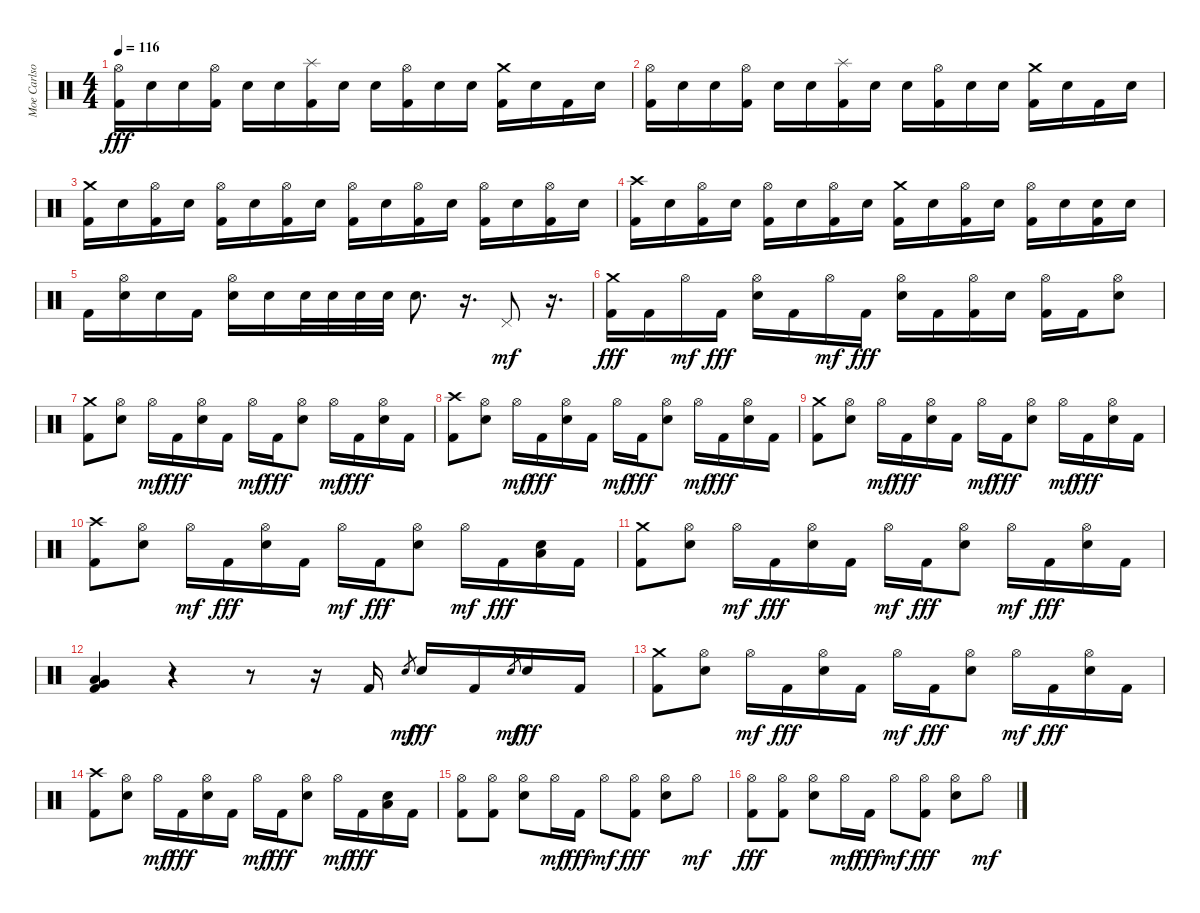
\track ("Moe Carlson" "Moe Carlso") {instrument percussion}
\staff {score}
\articulation defaults
\ts (4 4)
\tempo 116
\clef neutral
\ks c
("Hi-Hat (open)" "Kick (hit) 2").16{dy fff} "Electric Snare (hit)".16 "Electric Snare (hit)".16 ("Hi-Hat (open)" "Kick (hit) 2").16 "Electric Snare (hit)".16 "Electric Snare (hit)".16 ("Splash (hit)" "Kick (hit) 2").16 "Electric Snare (hit)".16 "Electric Snare (hit)".16 ("Hi-Hat (open)" "Kick (hit) 2").16 "Electric Snare (hit)".16 "Electric Snare (hit)".16 ("Crash medium (hit)" "Kick (hit) 2").16 "Electric Snare (hit)".16 "Kick (hit) 2".16 "Electric Snare (hit)".16 |
("Hi-Hat (open)" "Kick (hit) 2").16 "Electric Snare (hit)".16 "Electric Snare (hit)".16 ("Hi-Hat (open)" "Kick (hit) 2").16 "Electric Snare (hit)".16 "Electric Snare (hit)".16 ("Splash (hit)" "Kick (hit) 2").16 "Electric Snare (hit)".16 "Electric Snare (hit)".16 ("Hi-Hat (open)" "Kick (hit) 2").16 "Electric Snare (hit)".16 "Electric Snare (hit)".16 ("Crash medium (hit)" "Kick (hit) 2").16 "Electric Snare (hit)".16 "Kick (hit) 2".16 "Electric Snare (hit)".16 |
("Crash medium (hit)" "Kick (hit) 2").16 "Electric Snare (hit)".16 ("Hi-Hat (open)" "Kick (hit) 2").16 "Electric Snare (hit)".16 ("Hi-Hat (open)" "Kick (hit) 2").16 "Electric Snare (hit)".16 ("Hi-Hat (open)" "Kick (hit) 2").16 "Electric Snare (hit)".16 ("Hi-Hat (open)" "Kick (hit) 2").16 "Electric Snare (hit)".16 ("Hi-Hat (open)" "Kick (hit) 2").16 "Electric Snare (hit)".16 ("Hi-Hat (open)" "Kick (hit) 2").16 "Electric Snare (hit)".16 ("Hi-Hat (open)" "Kick (hit) 2").16 "Electric Snare (hit)".16 |
("Crash high (hit)" "Kick (hit) 2").16 "Electric Snare (hit)".16 ("Hi-Hat (open)" "Kick (hit) 2").16 "Electric Snare (hit)".16 ("Hi-Hat (open)" "Kick (hit) 2").16 "Electric Snare (hit)".16 ("Hi-Hat (open)" "Kick (hit) 2").16 "Electric Snare (hit)".16 ("Crash medium (hit)" "Kick (hit) 2").16 "Electric Snare (hit)".16 ("Hi-Hat (open)" "Kick (hit) 2").16 "Electric Snare (hit)".16 ("Hi-Hat (open)" "Kick (hit) 2").16 "Electric Snare (hit)".16 ("Electric Snare (hit)" "Kick (hit) 2").16 "Electric Snare (hit)".16 |
"Kick (hit) 2".16 ("Hi-Hat (open)" "Electric Snare (hit)").16 "Electric Snare (hit)".16 "Kick (hit) 2".16 ("Hi-Hat (open)" "Electric Snare (hit)").16 "Electric Snare (hit)".16 "Electric Snare (hit)".32 "Electric Snare (hit)".32 "Electric Snare (hit)".32 "Electric Snare (hit)".32 "Electric Snare (hit)".8{d} r.16{d} "Pedal Hi-Hat (hit)".8{dy mf} r.16{d} |
("Crash medium (hit)" "Kick (hit) 2").16{dy fff} "Kick (hit) 2".16 "Hi-Hat (open)".16{dy mf} "Kick (hit) 2".16{dy fff} ("Hi-Hat (open)" "Electric Snare (hit)").16 "Kick (hit) 2".16 "Hi-Hat (open)".16{dy mf} "Kick (hit) 2".16{dy fff} ("Hi-Hat (open)" "Electric Snare (hit)").16 "Kick (hit) 2".16 ("Hi-Hat (open)" "Kick (hit) 2").16 "Electric Snare (hit)".16 ("Hi-Hat (open)" "Kick (hit) 2").16 "Kick (hit) 2".16 ("Hi-Hat (open)" "Electric Snare (hit)").8 |
("Crash medium (hit)" "Kick (hit) 2").8 ("Hi-Hat (open)" "Electric Snare (hit)").8 "Hi-Hat (open)".16{dy mf} "Kick (hit) 2".16{dy fff} ("Hi-Hat (open)" "Electric Snare (hit)").16 "Kick (hit) 2".16 "Hi-Hat (open)".16{dy mf} "Kick (hit) 2".16{dy fff} ("Hi-Hat (open)" "Electric Snare (hit)").8 "Hi-Hat (open)".16{dy mf} "Kick (hit) 2".16{dy fff} ("Hi-Hat (open)" "Electric Snare (hit)").16 "Kick (hit) 2".16 |
("Crash high (hit)" "Kick (hit) 2").8 ("Hi-Hat (open)" "Electric Snare (hit)").8 "Hi-Hat (open)".16{dy mf} "Kick (hit) 2".16{dy fff} ("Hi-Hat (open)" "Electric Snare (hit)").16 "Kick (hit) 2".16 "Hi-Hat (open)".16{dy mf} "Kick (hit) 2".16{dy fff} ("Hi-Hat (open)" "Electric Snare (hit)").8 "Hi-Hat (open)".16{dy mf} "Kick (hit) 2".16{dy fff} ("Hi-Hat (open)" "Electric Snare (hit)").16 "Kick (hit) 2".16 |
("Crash medium (hit)" "Kick (hit) 2").8 ("Hi-Hat (open)" "Electric Snare (hit)").8 "Hi-Hat (open)".16{dy mf} "Kick (hit) 2".16{dy fff} ("Hi-Hat (open)" "Electric Snare (hit)").16 "Kick (hit) 2".16 "Hi-Hat (open)".16{dy mf} "Kick (hit) 2".16{dy fff} ("Hi-Hat (open)" "Electric Snare (hit)").8 "Hi-Hat (open)".16{dy mf} "Kick (hit) 2".16{dy fff} ("Hi-Hat (open)" "Electric Snare (hit)").16 "Kick (hit) 2".16 |
("Crash high (hit)" "Kick (hit) 2").8 ("Hi-Hat (open)" "Electric Snare (hit)").8 "Hi-Hat (open)".16{dy mf} "Kick (hit) 2".16{dy fff} ("Hi-Hat (open)" "Electric Snare (hit)").16 "Kick (hit) 2".16 "Hi-Hat (open)".16{dy mf} "Kick (hit) 2".16{dy fff} ("Hi-Hat (open)" "Electric Snare (hit)").8 "Hi-Hat (open)".16{dy mf} "Kick (hit) 2".16{dy fff} ("Electric Snare (hit)" "Low Floor Tom (hit)").16 "Kick (hit) 2".16 |
("Crash medium (hit)" "Kick (hit) 2").8 ("Hi-Hat (open)" "Electric Snare (hit)").8 "Hi-Hat (open)".16{dy mf} "Kick (hit) 2".16{dy fff} ("Hi-Hat (open)" "Electric Snare (hit)").16 "Kick (hit) 2".16 "Hi-Hat (open)".16{dy mf} "Kick (hit) 2".16{dy fff} ("Hi-Hat (open)" "Electric Snare (hit)").8 "Hi-Hat (open)".16{dy mf} "Kick (hit) 2".16{dy fff} ("Hi-Hat (open)" "Electric Snare (hit)").16 "Kick (hit) 2".16 |
("Very Low Tom (hit)" "Low Floor Tom (hit)" "Kick (hit) 2").4 r.4 r.8 r.16 "Kick (hit) 2".16 "Electric Snare (hit)".8{gr dy mf} "Electric Snare (hit)".16{dy fff} "Kick (hit) 2".16 "Electric Snare (hit)".8{gr dy mf} "Electric Snare (hit)".16{dy fff} "Kick (hit) 2".16 |
("Crash medium (hit)" "Kick (hit) 2").8 ("Hi-Hat (open)" "Electric Snare (hit)").8 "Hi-Hat (open)".16{dy mf} "Kick (hit) 2".16{dy fff} ("Hi-Hat (open)" "Electric Snare (hit)").16 "Kick (hit) 2".16 "Hi-Hat (open)".16{dy mf} "Kick (hit) 2".16{dy fff} ("Hi-Hat (open)" "Electric Snare (hit)").8 "Hi-Hat (open)".16{dy mf} "Kick (hit) 2".16{dy fff} ("Hi-Hat (open)" "Electric Snare (hit)").16 "Kick (hit) 2".16 |
("Crash high (hit)" "Kick (hit) 2").8 ("Hi-Hat (open)" "Electric Snare (hit)").8 "Hi-Hat (open)".16{dy mf} "Kick (hit) 2".16{dy fff} ("Hi-Hat (open)" "Electric Snare (hit)").16 "Kick (hit) 2".16 "Hi-Hat (open)".16{dy mf} "Kick (hit) 2".16{dy fff} ("Hi-Hat (open)" "Electric Snare (hit)").8 "Hi-Hat (open)".16{dy mf} "Kick (hit) 2".16{dy fff} ("Electric Snare (hit)" "Low Floor Tom (hit)").16 "Kick (hit) 2".16 |
("Hi-Hat (open)" "Kick (hit) 2").8 ("Hi-Hat (open)" "Kick (hit) 2").8 ("Hi-Hat (open)" "Electric Snare (hit)").8 "Hi-Hat (open)".16{dy mf} "Kick (hit) 2".16{dy fff} "Hi-Hat (open)".8{dy mf} ("Hi-Hat (open)" "Kick (hit) 2").8{dy fff} ("Hi-Hat (open)" "Electric Snare (hit)").8 "Hi-Hat (open)".8{dy mf} |
("Hi-Hat (open)" "Kick (hit) 2").8{dy fff} ("Hi-Hat (open)" "Kick (hit) 2").8 ("Hi-Hat (open)" "Electric Snare (hit)").8 "Hi-Hat (open)".16{dy mf} "Kick (hit) 2".16{dy fff} "Hi-Hat (open)".8{dy mf} ("Hi-Hat (open)" "Kick (hit) 2").8{dy fff} ("Hi-Hat (open)" "Electric Snare (hit)").8 "Hi-Hat (open)".8{dy mf}
